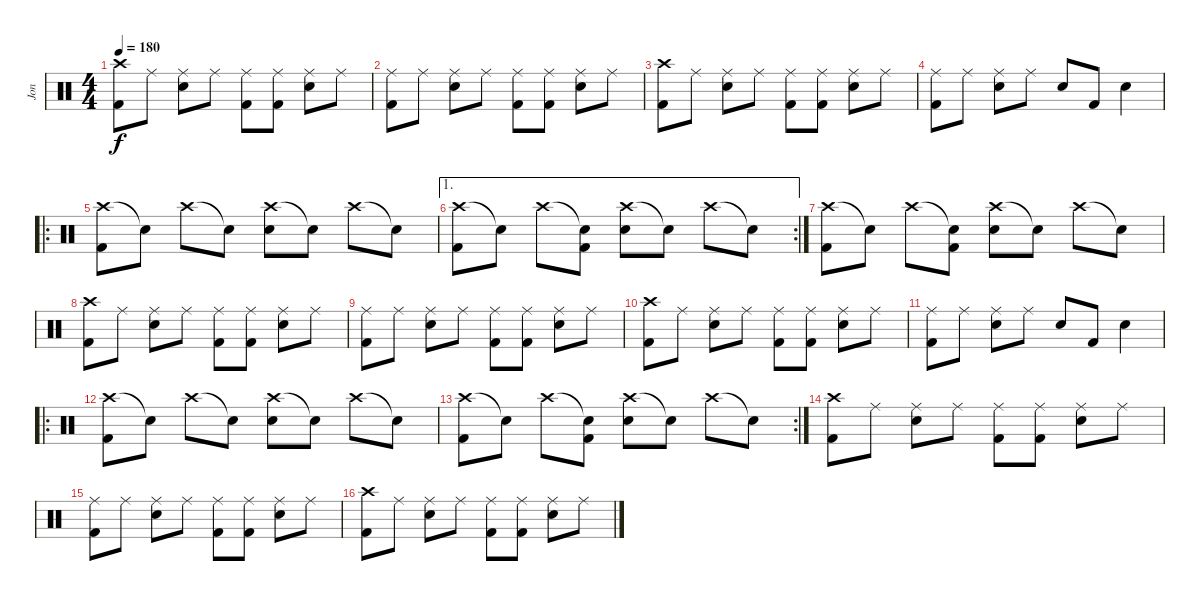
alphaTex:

\track ("Jon" "Jon") {instrument percussion}
\staff {score}
\articulation defaults
\ts (4 4)
\tempo 180
\clef neutral
\ks c
("Crash high (hit)" "Kick (hit) 2").8{dy f} "Ride (middle)".8 ("Ride (middle)" "Snare (hit) 2").8 "Ride (middle)".8 ("Ride (middle)" "Kick (hit) 2").8 ("Ride (middle)" "Kick (hit) 2").8 ("Ride (middle)" "Snare (hit) 2").8 "Ride (middle)".8 |
("Ride (middle)" "Kick (hit) 2").8 "Ride (middle)".8 ("Ride (middle)" "Snare (hit) 2").8 "Ride (middle)".8 ("Ride (middle)" "Kick (hit) 2").8 ("Ride (middle)" "Kick (hit) 2").8 ("Ride (middle)" "Snare (hit) 2").8 "Ride (middle)".8 |
("Crash high (hit)" "Kick (hit) 2").8 "Ride (middle)".8 ("Ride (middle)" "Snare (hit) 2").8 "Ride (middle)".8 ("Ride (middle)" "Kick (hit) 2").8 ("Ride (middle)" "Kick (hit) 2").8 ("Ride (middle)" "Snare (hit) 2").8 "Ride (middle)".8 |
("Ride (middle)" "Kick (hit) 2").8 "Ride (middle)".8 ("Ride (middle)" "Snare (hit) 2").8 "Ride (middle)".8 "Snare (hit) 2".8 "Kick (hit) 2".8 "Snare (hit) 2".4 |
\ro
("Crash high (hit)" "Kick (hit) 2").8 "Snare (hit)"{t}.8 "Crash high (hit)".8 "Snare (hit)"{t}.8 ("Crash high (hit)" "Snare (hit) 2").8 "Snare (hit)"{t}.8 "Crash high (hit)".8 "Snare (hit)"{t}.8 |
\ae 1
\rc 2
("Crash high (hit)" "Kick (hit) 2").8 "Snare (hit)"{t}.8 "Crash high (hit)".8 ("Snare (hit)"{t} "Kick (hit) 2").8 ("Crash high (hit)" "Snare (hit) 2").8 "Snare (hit)"{t}.8 "Crash high (hit)".8 "Snare (hit)"{t}.8 |
("Crash high (hit)" "Kick (hit) 2").8 "Snare (hit)"{t}.8 "Crash high (hit)".8 ("Snare (hit)"{t} "Kick (hit) 2").8 ("Crash high (hit)" "Snare (hit) 2").8 "Snare (hit)"{t}.8 "Crash high (hit)".8 "Snare (hit)"{t}.8 |
("Crash high (hit)" "Kick (hit) 2").8 "Ride (middle)".8 ("Ride (middle)" "Snare (hit) 2").8 "Ride (middle)".8 ("Ride (middle)" "Kick (hit) 2").8 ("Ride (middle)" "Kick (hit) 2").8 ("Ride (middle)" "Snare (hit) 2").8 "Ride (middle)".8 |
("Ride (middle)" "Kick (hit) 2").8 "Ride (middle)".8 ("Ride (middle)" "Snare (hit) 2").8 "Ride (middle)".8 ("Ride (middle)" "Kick (hit) 2").8 ("Ride (middle)" "Kick (hit) 2").8 ("Ride (middle)" "Snare (hit) 2").8 "Ride (middle)".8 |
("Crash high (hit)" "Kick (hit) 2").8 "Ride (middle)".8 ("Ride (middle)" "Snare (hit) 2").8 "Ride (middle)".8 ("Ride (middle)" "Kick (hit) 2").8 ("Ride (middle)" "Kick (hit) 2").8 ("Ride (middle)" "Snare (hit) 2").8 "Ride (middle)".8 |
("Ride (middle)" "Kick (hit) 2").8 "Ride (middle)".8 ("Ride (middle)" "Snare (hit) 2").8 "Ride (middle)".8 "Snare (hit) 2".8 "Kick (hit) 2".8 "Snare (hit) 2".4 |
\ro
("Crash high (hit)" "Kick (hit) 2").8 "Snare (hit)"{t}.8 "Crash high (hit)".8 "Snare (hit)"{t}.8 ("Crash high (hit)" "Snare (hit) 2").8 "Snare (hit)"{t}.8 "Crash high (hit)".8 "Snare (hit)"{t}.8 |
\rc 2
("Crash high (hit)" "Kick (hit) 2").8 "Snare (hit)"{t}.8 "Crash high (hit)".8 ("Snare (hit)"{t} "Kick (hit) 2").8 ("Crash high (hit)" "Snare (hit) 2").8 "Snare (hit)"{t}.8 "Crash high (hit)".8 "Snare (hit)"{t}.8 |
("Crash high (hit)" "Kick (hit) 2").8 "Ride (middle)".8 ("Ride (middle)" "Snare (hit) 2").8 "Ride (middle)".8 ("Ride (middle)" "Kick (hit) 2").8 ("Ride (middle)" "Kick (hit) 2").8 ("Ride (middle)" "Snare (hit) 2").8 "Ride (middle)".8 |
("Ride (middle)" "Kick (hit) 2").8 "Ride (middle)".8 ("Ride (middle)" "Snare (hit) 2").8 "Ride (middle)".8 ("Ride (middle)" "Kick (hit) 2").8 ("Ride (middle)" "Kick (hit) 2").8 ("Ride (middle)" "Snare (hit) 2").8 "Ride (middle)".8 |
("Crash high (hit)" "Kick (hit) 2").8 "Ride (middle)".8 ("Ride (middle)" "Snare (hit) 2").8 "Ride (middle)".8 ("Ride (middle)" "Kick (hit) 2").8 ("Ride (middle)" "Kick (hit) 2").8 ("Ride (middle)" "Snare (hit) 2").8 "Ride (middle)".8
